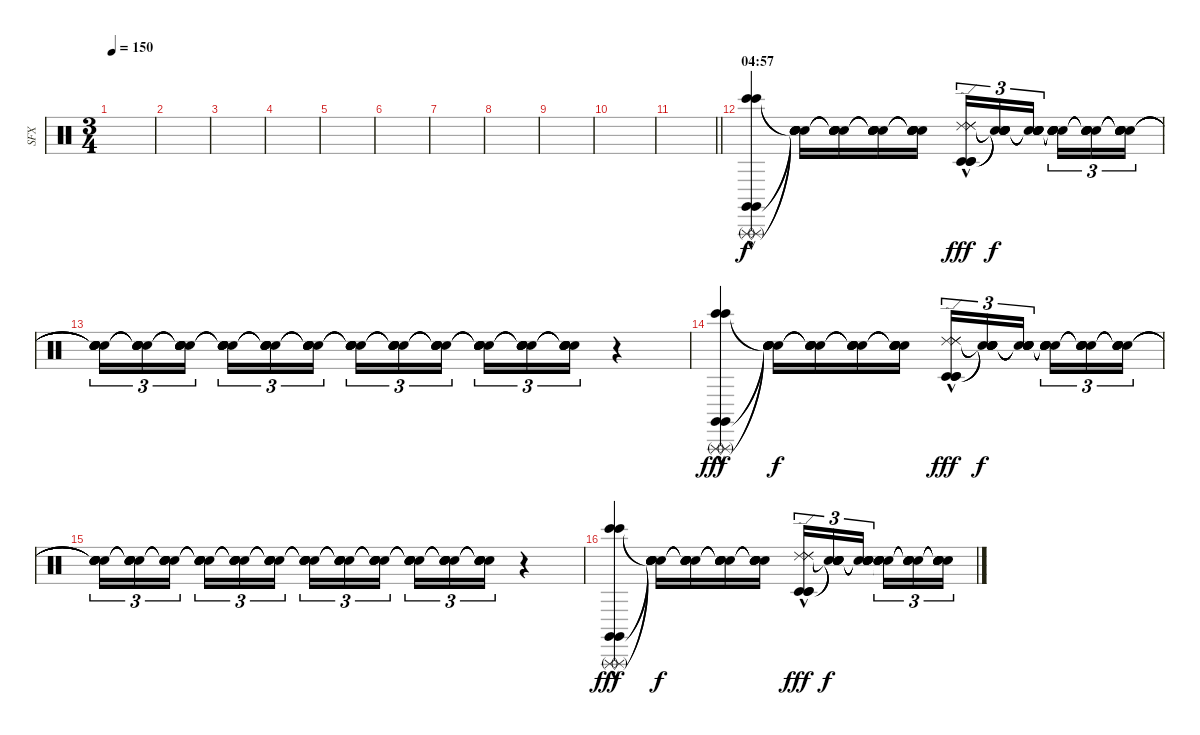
\track ("SFX" "SFX") {instrument percussion}
\staff {score}
\articulation defaults
\ts (3 4)
\tempo 150
\clef neutral
\ks c
|
|
|
|
|
|
|
|
|
|
\barLineRight lightlight
|
\section ("" "04:57")
("Triangle (rnute)"{hac} "Bongo High (hit)"{hac} "Claves (hit)"{hac} "Bongo High (hit)"{hac} "Triangle (rnute)"{hac} "Claves (hit)"{hac}).4{volume 16 balance 0} ("Snare (hit)"{t} "Snare (hit)"{t} "Snare (hit)"{t} "Snare (hit)"{t} "Snare (hit)"{t} "Snare (hit)"{t}).16{dy f} ("Snare (hit)"{t} "Snare (hit)"{t} "Snare (hit)"{t} "Snare (hit)"{t} "Snare (hit)"{t} "Snare (hit)"{t}).16 ("Snare (hit)"{t} "Snare (hit)"{t} "Snare (hit)"{t} "Snare (hit)"{t} "Snare (hit)"{t} "Snare (hit)"{t}).16 ("Snare (hit)"{t} "Snare (hit)"{t} "Snare (hit)"{t} "Snare (hit)"{t} "Snare (hit)"{t} "Snare (hit)"{t}).16 ("Timbale low (hit)"{hac} "Timbale low (hit)"{hac} "Timbale low (hit)"{hac} "Ride (edge) 2"{hac} "Ride (edge) 2"{hac} "Ride (edge) 2"{hac}).16{tu (3 2) dy fff balance 0} ("Snare (hit)"{t} "Snare (hit)"{t} "Snare (hit)"{t} "Snare (hit)"{t} "Snare (hit)"{t} "Snare (hit)"{t}).16{tu (3 2) dy f balance 16} ("Snare (hit)"{t} "Snare (hit)"{t} "Snare (hit)"{t} "Snare (hit)"{t} "Snare (hit)"{t} "Snare (hit)"{t}).16{tu (3 2) balance 0 beam splitsecondary} ("Snare (hit)"{t} "Snare (hit)"{t} "Snare (hit)"{t} "Snare (hit)"{t} "Snare (hit)"{t} "Snare (hit)"{t}).16{tu (3 2) balance 16} ("Snare (hit)"{t} "Snare (hit)"{t} "Snare (hit)"{t} "Snare (hit)"{t} "Snare (hit)"{t} "Snare (hit)"{t}).16{tu (3 2) balance 0} ("Snare (hit)"{t} "Snare (hit)"{t} "Snare (hit)"{t} "Snare (hit)"{t} "Snare (hit)"{t} "Snare (hit)"{t}).16{tu (3 2) balance 16} |
("Snare (hit)"{t} "Snare (hit)"{t} "Snare (hit)"{t} "Snare (hit)"{t} "Snare (hit)"{t} "Snare (hit)"{t}).16{tu (3 2) balance 0} ("Snare (hit)"{t} "Snare (hit)"{t} "Snare (hit)"{t} "Snare (hit)"{t} "Snare (hit)"{t} "Snare (hit)"{t}).16{tu (3 2) balance 16} ("Snare (hit)"{t} "Snare (hit)"{t} "Snare (hit)"{t} "Snare (hit)"{t} "Snare (hit)"{t} "Snare (hit)"{t}).16{tu (3 2) balance 0 beam splitsecondary} ("Snare (hit)"{t} "Snare (hit)"{t} "Snare (hit)"{t} "Snare (hit)"{t} "Snare (hit)"{t} "Snare (hit)"{t}).16{tu (3 2) balance 16} ("Snare (hit)"{t} "Snare (hit)"{t} "Snare (hit)"{t} "Snare (hit)"{t} "Snare (hit)"{t} "Snare (hit)"{t}).16{tu (3 2) balance 0} ("Snare (hit)"{t} "Snare (hit)"{t} "Snare (hit)"{t} "Snare (hit)"{t} "Snare (hit)"{t} "Snare (hit)"{t}).16{tu (3 2) balance 16} ("Snare (hit)"{t} "Snare (hit)"{t} "Snare (hit)"{t} "Snare (hit)"{t} "Snare (hit)"{t} "Snare (hit)"{t}).16{tu (3 2) balance 0} ("Snare (hit)"{t} "Snare (hit)"{t} "Snare (hit)"{t} "Snare (hit)"{t} "Snare (hit)"{t} "Snare (hit)"{t}).16{tu (3 2) balance 16} ("Snare (hit)"{t} "Snare (hit)"{t} "Snare (hit)"{t} "Snare (hit)"{t} "Snare (hit)"{t} "Snare (hit)"{t}).16{tu (3 2) balance 0 beam splitsecondary} ("Snare (hit)"{t} "Snare (hit)"{t} "Snare (hit)"{t} "Snare (hit)"{t} "Snare (hit)"{t} "Snare (hit)"{t}).16{tu (3 2) balance 16} ("Snare (hit)"{t} "Snare (hit)"{t} "Snare (hit)"{t} "Snare (hit)"{t} "Snare (hit)"{t} "Snare (hit)"{t}).16{tu (3 2) balance 0} ("Snare (hit)"{t} "Snare (hit)"{t} "Snare (hit)"{t} "Snare (hit)"{t} "Snare (hit)"{t} "Snare (hit)"{t}).16{tu (3 2) balance 16} r.4 |
("Triangle (rnute)"{hac} "Bongo High (hit)"{hac} "Claves (hit)"{hac} "Bongo High (hit)"{hac} "Triangle (rnute)"{hac} "Claves (hit)"{hac}).4{dy fff volume 16 balance 16} ("Snare (hit)"{t} "Snare (hit)"{t} "Snare (hit)"{t} "Snare (hit)"{t} "Snare (hit)"{t} "Snare (hit)"{t}).16{dy f} ("Snare (hit)"{t} "Snare (hit)"{t} "Snare (hit)"{t} "Snare (hit)"{t} "Snare (hit)"{t} "Snare (hit)"{t}).16 ("Snare (hit)"{t} "Snare (hit)"{t} "Snare (hit)"{t} "Snare (hit)"{t} "Snare (hit)"{t} "Snare (hit)"{t}).16 ("Snare (hit)"{t} "Snare (hit)"{t} "Snare (hit)"{t} "Snare (hit)"{t} "Snare (hit)"{t} "Snare (hit)"{t}).16 ("Timbale low (hit)"{hac} "Timbale low (hit)"{hac} "Timbale low (hit)"{hac} "Ride (edge) 2"{hac} "Ride (edge) 2"{hac} "Ride (edge) 2"{hac}).16{tu (3 2) dy fff balance 16} ("Snare (hit)"{t} "Snare (hit)"{t} "Snare (hit)"{t} "Snare (hit)"{t} "Snare (hit)"{t} "Snare (hit)"{t}).16{tu (3 2) dy f balance 0} ("Snare (hit)"{t} "Snare (hit)"{t} "Snare (hit)"{t} "Snare (hit)"{t} "Snare (hit)"{t} "Snare (hit)"{t}).16{tu (3 2) balance 16 beam splitsecondary} ("Snare (hit)"{t} "Snare (hit)"{t} "Snare (hit)"{t} "Snare (hit)"{t} "Snare (hit)"{t} "Snare (hit)"{t}).16{tu (3 2) balance 0} ("Snare (hit)"{t} "Snare (hit)"{t} "Snare (hit)"{t} "Snare (hit)"{t} "Snare (hit)"{t} "Snare (hit)"{t}).16{tu (3 2) balance 16} ("Snare (hit)"{t} "Snare (hit)"{t} "Snare (hit)"{t} "Snare (hit)"{t} "Snare (hit)"{t} "Snare (hit)"{t}).16{tu (3 2) balance 0} |
("Snare (hit)"{t} "Snare (hit)"{t} "Snare (hit)"{t} "Snare (hit)"{t} "Snare (hit)"{t} "Snare (hit)"{t}).16{tu (3 2) balance 16} ("Snare (hit)"{t} "Snare (hit)"{t} "Snare (hit)"{t} "Snare (hit)"{t} "Snare (hit)"{t} "Snare (hit)"{t}).16{tu (3 2) balance 0} ("Snare (hit)"{t} "Snare (hit)"{t} "Snare (hit)"{t} "Snare (hit)"{t} "Snare (hit)"{t} "Snare (hit)"{t}).16{tu (3 2) balance 16 beam splitsecondary} ("Snare (hit)"{t} "Snare (hit)"{t} "Snare (hit)"{t} "Snare (hit)"{t} "Snare (hit)"{t} "Snare (hit)"{t}).16{tu (3 2) balance 0} ("Snare (hit)"{t} "Snare (hit)"{t} "Snare (hit)"{t} "Snare (hit)"{t} "Snare (hit)"{t} "Snare (hit)"{t}).16{tu (3 2) balance 16} ("Snare (hit)"{t} "Snare (hit)"{t} "Snare (hit)"{t} "Snare (hit)"{t} "Snare (hit)"{t} "Snare (hit)"{t}).16{tu (3 2) balance 0} ("Snare (hit)"{t} "Snare (hit)"{t} "Snare (hit)"{t} "Snare (hit)"{t} "Snare (hit)"{t} "Snare (hit)"{t}).16{tu (3 2) balance 16} ("Snare (hit)"{t} "Snare (hit)"{t} "Snare (hit)"{t} "Snare (hit)"{t} "Snare (hit)"{t} "Snare (hit)"{t}).16{tu (3 2) balance 0} ("Snare (hit)"{t} "Snare (hit)"{t} "Snare (hit)"{t} "Snare (hit)"{t} "Snare (hit)"{t} "Snare (hit)"{t}).16{tu (3 2) balance 16 beam splitsecondary} ("Snare (hit)"{t} "Snare (hit)"{t} "Snare (hit)"{t} "Snare (hit)"{t} "Snare (hit)"{t} "Snare (hit)"{t}).16{tu (3 2) balance 0} ("Snare (hit)"{t} "Snare (hit)"{t} "Snare (hit)"{t} "Snare (hit)"{t} "Snare (hit)"{t} "Snare (hit)"{t}).16{tu (3 2) balance 16} ("Snare (hit)"{t} "Snare (hit)"{t} "Snare (hit)"{t} "Snare (hit)"{t} "Snare (hit)"{t} "Snare (hit)"{t}).16{tu (3 2) balance 0} r.4 |
("Triangle (rnute)"{hac} "Bongo High (hit)"{hac} "Claves (hit)"{hac} "Bongo High (hit)"{hac} "Triangle (rnute)"{hac} "Claves (hit)"{hac}).4{dy fff volume 16 balance 0} ("Snare (hit)"{t} "Snare (hit)"{t} "Snare (hit)"{t} "Snare (hit)"{t} "Snare (hit)"{t} "Snare (hit)"{t}).16{dy f} ("Snare (hit)"{t} "Snare (hit)"{t} "Snare (hit)"{t} "Snare (hit)"{t} "Snare (hit)"{t} "Snare (hit)"{t}).16 ("Snare (hit)"{t} "Snare (hit)"{t} "Snare (hit)"{t} "Snare (hit)"{t} "Snare (hit)"{t} "Snare (hit)"{t}).16 ("Snare (hit)"{t} "Snare (hit)"{t} "Snare (hit)"{t} "Snare (hit)"{t} "Snare (hit)"{t} "Snare (hit)"{t}).16 ("Timbale low (hit)"{hac} "Timbale low (hit)"{hac} "Timbale low (hit)"{hac} "Ride (edge) 2"{hac} "Ride (edge) 2"{hac} "Ride (edge) 2"{hac}).16{tu (3 2) dy fff balance 0} ("Snare (hit)"{t} "Snare (hit)"{t} "Snare (hit)"{t} "Snare (hit)"{t} "Snare (hit)"{t} "Snare (hit)"{t}).16{tu (3 2) dy f balance 16} ("Snare (hit)"{t} "Snare (hit)"{t} "Snare (hit)"{t} "Snare (hit)"{t} "Snare (hit)"{t} "Snare (hit)"{t}).16{tu (3 2) balance 0 beam splitsecondary} ("Snare (hit)"{t} "Snare (hit)"{t} "Snare (hit)"{t} "Snare (hit)"{t} "Snare (hit)"{t} "Snare (hit)"{t}).16{tu (3 2) balance 16} ("Snare (hit)"{t} "Snare (hit)"{t} "Snare (hit)"{t} "Snare (hit)"{t} "Snare (hit)"{t} "Snare (hit)"{t}).16{tu (3 2) balance 0} ("Snare (hit)"{t} "Snare (hit)"{t} "Snare (hit)"{t} "Snare (hit)"{t} "Snare (hit)"{t} "Snare (hit)"{t}).16{tu (3 2) balance 16}
